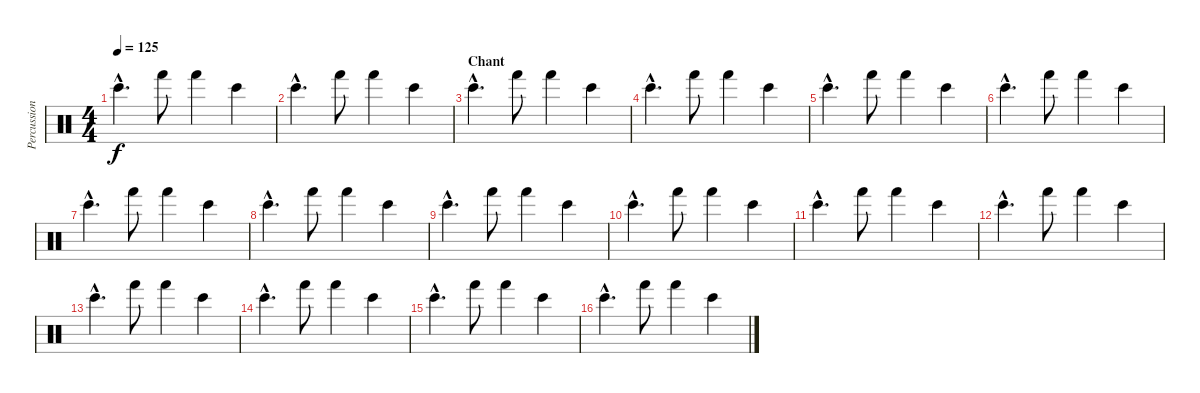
\track ("Percussions" "Percussion") {instrument percussion}
\staff {score}
\articulation defaults
\ts (4 4)
\tempo 125
\clef neutral
\ks c "Bongo High (hit)"{hac}.4{d dy f} "Hand (hit)".8 "Hand (hit)".4 "Bongo High (hit)".4
|
"Bongo High (hit)"{hac}.4{d} "Hand (hit)".8 "Hand (hit)".4 "Bongo High (hit)".4 |
\section ("" "Chant")
"Bongo High (hit)"{hac}.4{d} "Hand (hit)".8 "Hand (hit)".4 "Bongo High (hit)".4 |
"Bongo High (hit)"{hac}.4{d} "Hand (hit)".8 "Hand (hit)".4 "Bongo High (hit)".4 |
"Bongo High (hit)"{hac}.4{d} "Hand (hit)".8 "Hand (hit)".4 "Bongo High (hit)".4 |
"Bongo High (hit)"{hac}.4{d} "Hand (hit)".8 "Hand (hit)".4 "Bongo High (hit)".4 |
"Bongo High (hit)"{hac}.4{d} "Hand (hit)".8 "Hand (hit)".4 "Bongo High (hit)".4 |
"Bongo High (hit)"{hac}.4{d} "Hand (hit)".8 "Hand (hit)".4 "Bongo High (hit)".4 |
"Bongo High (hit)"{hac}.4{d} "Hand (hit)".8 "Hand (hit)".4 "Bongo High (hit)".4 |
"Bongo High (hit)"{hac}.4{d} "Hand (hit)".8 "Hand (hit)".4 "Bongo High (hit)".4 |
"Bongo High (hit)"{hac}.4{d} "Hand (hit)".8 "Hand (hit)".4 "Bongo High (hit)".4 |
"Bongo High (hit)"{hac}.4{d} "Hand (hit)".8 "Hand (hit)".4 "Bongo High (hit)".4 |
"Bongo High (hit)"{hac}.4{d} "Hand (hit)".8 "Hand (hit)".4 "Bongo High (hit)".4 |
"Bongo High (hit)"{hac}.4{d} "Hand (hit)".8 "Hand (hit)".4 "Bongo High (hit)".4 |
"Bongo High (hit)"{hac}.4{d} "Hand (hit)".8 "Hand (hit)".4 "Bongo High (hit)".4 |
"Bongo High (hit)"{hac}.4{d} "Hand (hit)".8 "Hand (hit)".4 "Bongo High (hit)".4
